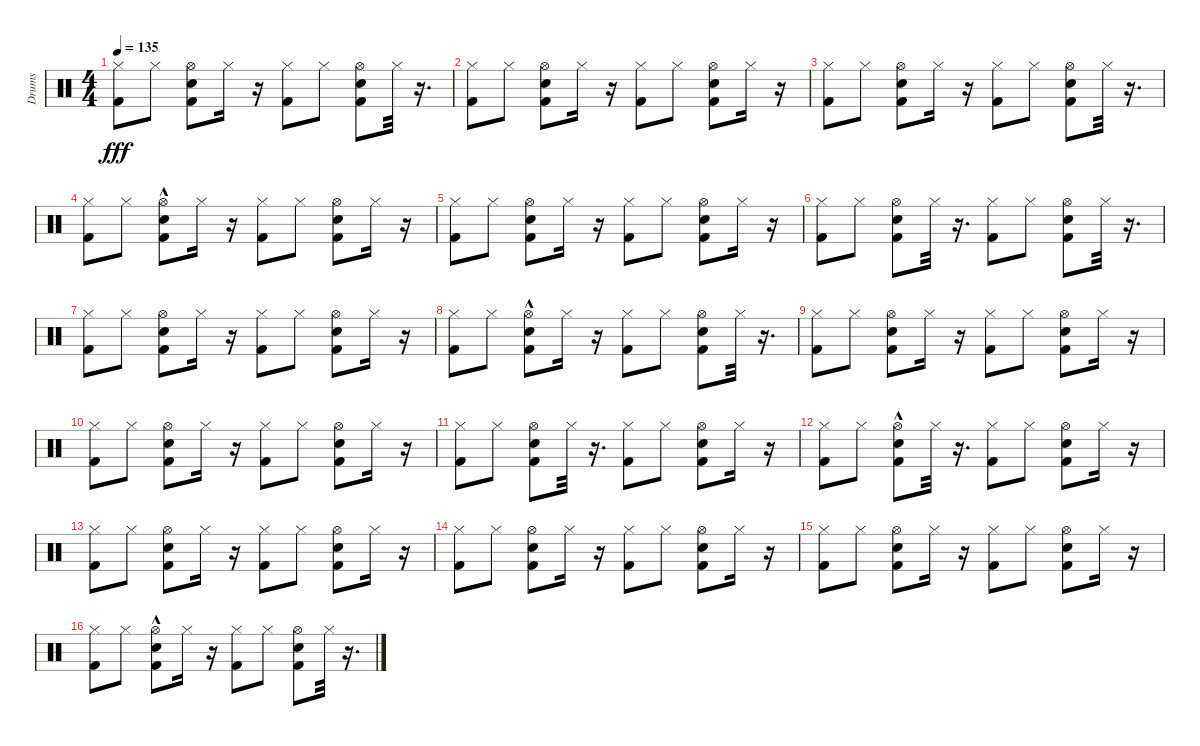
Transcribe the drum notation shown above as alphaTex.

\track ("Drums" "Drums") {instrument percussion}
\staff {score}
\articulation defaults
\ts (4 4)
\tempo 135
\clef neutral
\ks c
("Hi-Hat (closed)" "Kick (hit) 2").8{dy fff} "Hi-Hat (closed)".8 ("Kick (hit) 2" "Snare (hit) 2" "Hi-Hat (open)").8 "Hi-Hat (closed)".16 r.16 ("Kick (hit) 2" "Hi-Hat (closed)").8 "Hi-Hat (closed)".8 ("Kick (hit) 2" "Snare (hit) 2" "Hi-Hat (open)").8 "Hi-Hat (closed)".32 r.16{d} |
("Kick (hit) 2" "Hi-Hat (closed)").8 "Hi-Hat (closed)".8 ("Kick (hit) 2" "Snare (hit) 2" "Hi-Hat (open)").8 "Hi-Hat (closed)".16 r.16 ("Kick (hit) 2" "Hi-Hat (closed)").8 "Hi-Hat (closed)".8 ("Kick (hit) 2" "Snare (hit) 2" "Hi-Hat (open)").8 "Hi-Hat (closed)".16 r.16 |
("Kick (hit) 2" "Hi-Hat (closed)").8 "Hi-Hat (closed)".8 ("Kick (hit) 2" "Snare (hit) 2" "Hi-Hat (open)").8 "Hi-Hat (closed)".16 r.16 ("Kick (hit) 2" "Hi-Hat (closed)").8 "Hi-Hat (closed)".8 ("Kick (hit) 2" "Snare (hit) 2" "Hi-Hat (open)").8 "Hi-Hat (closed)".32 r.16{d} |
("Kick (hit) 2" "Hi-Hat (closed)").8 "Hi-Hat (closed)".8 ("Kick (hit) 2" "Snare (hit) 2"{hac} "Hi-Hat (open)").8 "Hi-Hat (closed)".16 r.16 ("Kick (hit) 2" "Hi-Hat (closed)").8 "Hi-Hat (closed)".8 ("Kick (hit) 2" "Snare (hit) 2" "Hi-Hat (open)").8 "Hi-Hat (closed)".16 r.16 |
("Kick (hit) 2" "Hi-Hat (closed)").8 "Hi-Hat (closed)".8 ("Kick (hit) 2" "Snare (hit) 2" "Hi-Hat (open)").8 "Hi-Hat (closed)".16 r.16 ("Kick (hit) 2" "Hi-Hat (closed)").8 "Hi-Hat (closed)".8 ("Kick (hit) 2" "Snare (hit) 2" "Hi-Hat (open)").8 "Hi-Hat (closed)".16 r.16 |
("Kick (hit) 2" "Hi-Hat (closed)").8 "Hi-Hat (closed)".8 ("Kick (hit) 2" "Snare (hit) 2" "Hi-Hat (open)").8 "Hi-Hat (closed)".32 r.16{d} ("Kick (hit) 2" "Hi-Hat (closed)").8 "Hi-Hat (closed)".8 ("Kick (hit) 2" "Snare (hit) 2" "Hi-Hat (open)").8 "Hi-Hat (closed)".32 r.16{d} |
("Kick (hit) 2" "Hi-Hat (closed)").8 "Hi-Hat (closed)".8 ("Kick (hit) 2" "Snare (hit) 2" "Hi-Hat (open)").8 "Hi-Hat (closed)".16 r.16 ("Kick (hit) 2" "Hi-Hat (closed)").8 "Hi-Hat (closed)".8 ("Snare (hit) 2" "Kick (hit) 2" "Hi-Hat (open)").8 "Hi-Hat (closed)".16 r.16 |
("Kick (hit) 2" "Hi-Hat (closed)").8 "Hi-Hat (closed)".8 ("Kick (hit) 2" "Hi-Hat (open)" "Snare (hit) 2"{hac}).8 "Hi-Hat (closed)".16 r.16 ("Kick (hit) 2" "Hi-Hat (closed)").8 "Hi-Hat (closed)".8 ("Kick (hit) 2" "Snare (hit) 2" "Hi-Hat (open)").8 "Hi-Hat (closed)".32 r.16{d} |
("Kick (hit) 2" "Hi-Hat (closed)").8 "Hi-Hat (closed)".8 ("Kick (hit) 2" "Snare (hit) 2" "Hi-Hat (open)").8 "Hi-Hat (closed)".16 r.16 ("Kick (hit) 2" "Hi-Hat (closed)").8 "Hi-Hat (closed)".8 ("Kick (hit) 2" "Snare (hit) 2" "Hi-Hat (open)").8 "Hi-Hat (closed)".16 r.16 |
("Kick (hit) 2" "Hi-Hat (closed)").8 "Hi-Hat (closed)".8 ("Kick (hit) 2" "Snare (hit) 2" "Hi-Hat (open)").8 "Hi-Hat (closed)".16 r.16 ("Kick (hit) 2" "Hi-Hat (closed)").8 "Hi-Hat (closed)".8 ("Kick (hit) 2" "Snare (hit) 2" "Hi-Hat (open)").8 "Hi-Hat (closed)".16 r.16 |
("Kick (hit) 2" "Hi-Hat (closed)").8 "Hi-Hat (closed)".8 ("Kick (hit) 2" "Snare (hit) 2" "Hi-Hat (open)").8 "Hi-Hat (closed)".32 r.16{d} ("Kick (hit) 2" "Hi-Hat (closed)").8 "Hi-Hat (closed)".8 ("Kick (hit) 2" "Snare (hit) 2" "Hi-Hat (open)").8 "Hi-Hat (closed)".16 r.16 |
("Kick (hit) 2" "Hi-Hat (closed)").8 "Hi-Hat (closed)".8 ("Kick (hit) 2" "Snare (hit) 2"{hac} "Hi-Hat (open)").8 "Hi-Hat (closed)".32 r.16{d} ("Kick (hit) 2" "Hi-Hat (closed)").8 "Hi-Hat (closed)".8 ("Kick (hit) 2" "Snare (hit) 2" "Hi-Hat (open)").8 "Hi-Hat (closed)".16 r.16 |
("Kick (hit) 2" "Hi-Hat (closed)").8 "Hi-Hat (closed)".8 ("Kick (hit) 2" "Snare (hit) 2" "Hi-Hat (open)").8 "Hi-Hat (closed)".16 r.16 ("Kick (hit) 2" "Hi-Hat (closed)").8 "Hi-Hat (closed)".8 ("Kick (hit) 2" "Snare (hit) 2" "Hi-Hat (open)").8 "Hi-Hat (closed)".16 r.16 |
("Kick (hit) 2" "Hi-Hat (closed)").8 "Hi-Hat (closed)".8 ("Kick (hit) 2" "Snare (hit) 2" "Hi-Hat (open)").8 "Hi-Hat (closed)".16 r.16 ("Kick (hit) 2" "Hi-Hat (closed)").8 "Hi-Hat (closed)".8 ("Kick (hit) 2" "Snare (hit) 2" "Hi-Hat (open)").8 "Hi-Hat (closed)".16 r.16 |
("Kick (hit) 2" "Hi-Hat (closed)").8 "Hi-Hat (closed)".8 ("Kick (hit) 2" "Snare (hit) 2" "Hi-Hat (open)").8 "Hi-Hat (closed)".16 r.16 ("Kick (hit) 2" "Hi-Hat (closed)").8 "Hi-Hat (closed)".8 ("Kick (hit) 2" "Snare (hit) 2" "Hi-Hat (open)").8 "Hi-Hat (closed)".16 r.16 |
("Kick (hit) 2" "Hi-Hat (closed)").8 "Hi-Hat (closed)".8 ("Kick (hit) 2" "Snare (hit) 2"{hac} "Hi-Hat (open)").8 "Hi-Hat (closed)".16 r.16 ("Kick (hit) 2" "Hi-Hat (closed)").8 "Hi-Hat (closed)".8 ("Kick (hit) 2" "Snare (hit) 2" "Hi-Hat (open)").8 "Hi-Hat (closed)".32 r.16{d}
